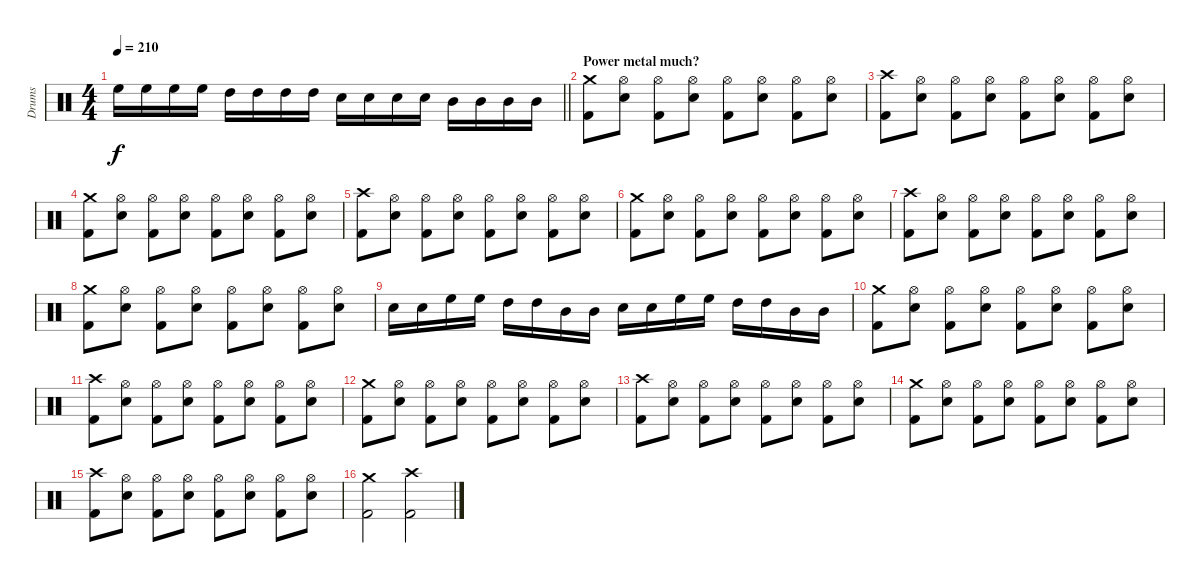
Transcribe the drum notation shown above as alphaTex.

\track ("Drums" "Drums") {instrument percussion}
\staff {score}
\articulation defaults
\ts (4 4)
\tempo 210
\clef neutral
\barLineRight lightlight
\ks c "High Floor Tom (hit)".16{dy f} "High Floor Tom (hit)".16 "High Floor Tom (hit)".16 "High Floor Tom (hit)".16 "High Tom (hit)".16 "High Tom (hit)".16 "High Tom (hit)".16 "High Tom (hit)".16 "Electric Snare (hit)".16 "Electric Snare (hit)".16 "Electric Snare (hit)".16 "Electric Snare (hit)".16 "Mid Tom (hit)".16 "Mid Tom (hit)".16 "Mid Tom (hit)".16 "Mid Tom (hit)".16
|
\section ("" "Power metal much?")
("Crash medium (hit)" "Kick (hit) 2").8 ("Hi-Hat (open)" "Electric Snare (hit)").8 ("Hi-Hat (open)" "Kick (hit) 2").8 ("Hi-Hat (open)" "Electric Snare (hit)").8 ("Hi-Hat (open)" "Kick (hit) 2").8 ("Hi-Hat (open)" "Electric Snare (hit)").8 ("Hi-Hat (open)" "Kick (hit) 2").8 ("Hi-Hat (open)" "Electric Snare (hit)").8 |
("Crash high (hit)" "Kick (hit) 2").8 ("Hi-Hat (open)" "Electric Snare (hit)").8 ("Hi-Hat (open)" "Kick (hit) 2").8 ("Hi-Hat (open)" "Electric Snare (hit)").8 ("Hi-Hat (open)" "Kick (hit) 2").8 ("Hi-Hat (open)" "Electric Snare (hit)").8 ("Hi-Hat (open)" "Kick (hit) 2").8 ("Hi-Hat (open)" "Electric Snare (hit)").8 |
("Crash medium (hit)" "Kick (hit) 2").8 ("Hi-Hat (open)" "Electric Snare (hit)").8 ("Hi-Hat (open)" "Kick (hit) 2").8 ("Hi-Hat (open)" "Electric Snare (hit)").8 ("Hi-Hat (open)" "Kick (hit) 2").8 ("Hi-Hat (open)" "Electric Snare (hit)").8 ("Hi-Hat (open)" "Kick (hit) 2").8 ("Hi-Hat (open)" "Electric Snare (hit)").8 |
("Crash high (hit)" "Kick (hit) 2").8 ("Hi-Hat (open)" "Electric Snare (hit)").8 ("Hi-Hat (open)" "Kick (hit) 2").8 ("Hi-Hat (open)" "Electric Snare (hit)").8 ("Hi-Hat (open)" "Kick (hit) 2").8 ("Hi-Hat (open)" "Electric Snare (hit)").8 ("Hi-Hat (open)" "Kick (hit) 2").8 ("Hi-Hat (open)" "Electric Snare (hit)").8 |
("Crash medium (hit)" "Kick (hit) 2").8 ("Hi-Hat (open)" "Electric Snare (hit)").8 ("Hi-Hat (open)" "Kick (hit) 2").8 ("Hi-Hat (open)" "Electric Snare (hit)").8 ("Hi-Hat (open)" "Kick (hit) 2").8 ("Hi-Hat (open)" "Electric Snare (hit)").8 ("Hi-Hat (open)" "Kick (hit) 2").8 ("Hi-Hat (open)" "Electric Snare (hit)").8 |
("Crash high (hit)" "Kick (hit) 2").8 ("Hi-Hat (open)" "Electric Snare (hit)").8 ("Hi-Hat (open)" "Kick (hit) 2").8 ("Hi-Hat (open)" "Electric Snare (hit)").8 ("Hi-Hat (open)" "Kick (hit) 2").8 ("Hi-Hat (open)" "Electric Snare (hit)").8 ("Hi-Hat (open)" "Kick (hit) 2").8 ("Hi-Hat (open)" "Electric Snare (hit)").8 |
("Crash medium (hit)" "Kick (hit) 2").8 ("Hi-Hat (open)" "Electric Snare (hit)").8 ("Hi-Hat (open)" "Kick (hit) 2").8 ("Hi-Hat (open)" "Electric Snare (hit)").8 ("Hi-Hat (open)" "Kick (hit) 2").8 ("Hi-Hat (open)" "Electric Snare (hit)").8 ("Hi-Hat (open)" "Kick (hit) 2").8 ("Hi-Hat (open)" "Electric Snare (hit)").8 |
"Electric Snare (hit)".16 "Electric Snare (hit)".16 "High Floor Tom (hit)".16 "High Floor Tom (hit)".16 "High Tom (hit)".16 "High Tom (hit)".16 "Mid Tom (hit)".16 "Mid Tom (hit)".16 "Electric Snare (hit)".16 "Electric Snare (hit)".16 "High Floor Tom (hit)".16 "High Floor Tom (hit)".16 "High Tom (hit)".16 "High Tom (hit)".16 "Mid Tom (hit)".16 "Mid Tom (hit)".16 |
("Crash medium (hit)" "Kick (hit) 2").8 ("Hi-Hat (open)" "Electric Snare (hit)").8 ("Hi-Hat (open)" "Kick (hit) 2").8 ("Hi-Hat (open)" "Electric Snare (hit)").8 ("Hi-Hat (open)" "Kick (hit) 2").8 ("Hi-Hat (open)" "Electric Snare (hit)").8 ("Hi-Hat (open)" "Kick (hit) 2").8 ("Hi-Hat (open)" "Electric Snare (hit)").8 |
("Crash high (hit)" "Kick (hit) 2").8 ("Hi-Hat (open)" "Electric Snare (hit)").8 ("Hi-Hat (open)" "Kick (hit) 2").8 ("Hi-Hat (open)" "Electric Snare (hit)").8 ("Hi-Hat (open)" "Kick (hit) 2").8 ("Hi-Hat (open)" "Electric Snare (hit)").8 ("Hi-Hat (open)" "Kick (hit) 2").8 ("Hi-Hat (open)" "Electric Snare (hit)").8 |
("Crash medium (hit)" "Kick (hit) 2").8 ("Hi-Hat (open)" "Electric Snare (hit)").8 ("Hi-Hat (open)" "Kick (hit) 2").8 ("Hi-Hat (open)" "Electric Snare (hit)").8 ("Hi-Hat (open)" "Kick (hit) 2").8 ("Hi-Hat (open)" "Electric Snare (hit)").8 ("Hi-Hat (open)" "Kick (hit) 2").8 ("Hi-Hat (open)" "Electric Snare (hit)").8 |
("Crash high (hit)" "Kick (hit) 2").8 ("Hi-Hat (open)" "Electric Snare (hit)").8 ("Hi-Hat (open)" "Kick (hit) 2").8 ("Hi-Hat (open)" "Electric Snare (hit)").8 ("Hi-Hat (open)" "Kick (hit) 2").8 ("Hi-Hat (open)" "Electric Snare (hit)").8 ("Hi-Hat (open)" "Kick (hit) 2").8 ("Hi-Hat (open)" "Electric Snare (hit)").8 |
("Crash medium (hit)" "Kick (hit) 2").8 ("Hi-Hat (open)" "Electric Snare (hit)").8 ("Hi-Hat (open)" "Kick (hit) 2").8 ("Hi-Hat (open)" "Electric Snare (hit)").8 ("Hi-Hat (open)" "Kick (hit) 2").8 ("Hi-Hat (open)" "Electric Snare (hit)").8 ("Hi-Hat (open)" "Kick (hit) 2").8 ("Hi-Hat (open)" "Electric Snare (hit)").8 |
("Crash high (hit)" "Kick (hit) 2").8 ("Hi-Hat (open)" "Electric Snare (hit)").8 ("Hi-Hat (open)" "Kick (hit) 2").8 ("Hi-Hat (open)" "Electric Snare (hit)").8 ("Hi-Hat (open)" "Kick (hit) 2").8 ("Hi-Hat (open)" "Electric Snare (hit)").8 ("Hi-Hat (open)" "Kick (hit) 2").8 ("Hi-Hat (open)" "Electric Snare (hit)").8 |
("Crash medium (hit)" "Kick (hit) 2").2 ("Crash high (hit)" "Kick (hit) 2").2
